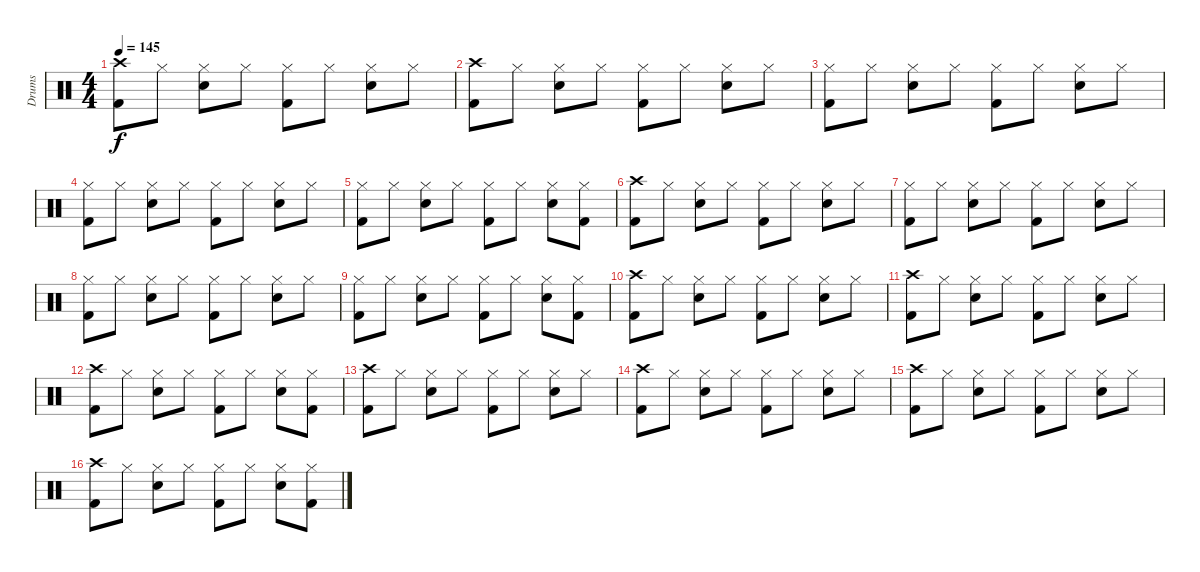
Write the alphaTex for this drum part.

\track ("Drums" "Drums") {instrument percussion}
\staff {score}
\articulation defaults
\ts (4 4)
\tempo 145
\clef neutral
\ks c
("Crash high (hit)" "Kick (hit) 2").8{dy f} "Hi-Hat (closed)".8 ("Hi-Hat (closed)" "Snare (hit) 2").8 "Hi-Hat (closed)".8 ("Hi-Hat (closed)" "Kick (hit) 2").8 "Hi-Hat (closed)".8 ("Hi-Hat (closed)" "Snare (hit) 2").8 "Hi-Hat (closed)".8 |
("Crash high (hit)" "Kick (hit) 2").8 "Hi-Hat (closed)".8 ("Hi-Hat (closed)" "Snare (hit) 2").8 "Hi-Hat (closed)".8 ("Hi-Hat (closed)" "Kick (hit) 2").8 "Hi-Hat (closed)".8 ("Hi-Hat (closed)" "Snare (hit) 2").8 "Hi-Hat (closed)".8 |
("Hi-Hat (closed)" "Kick (hit) 2").8 "Hi-Hat (closed)".8 ("Hi-Hat (closed)" "Snare (hit) 2").8 "Hi-Hat (closed)".8 ("Hi-Hat (closed)" "Kick (hit) 2").8 "Hi-Hat (closed)".8 ("Hi-Hat (closed)" "Snare (hit) 2").8 "Hi-Hat (closed)".8 |
("Hi-Hat (closed)" "Kick (hit) 2").8 "Hi-Hat (closed)".8 ("Hi-Hat (closed)" "Snare (hit) 2").8 "Hi-Hat (closed)".8 ("Hi-Hat (closed)" "Kick (hit) 2").8 "Hi-Hat (closed)".8 ("Hi-Hat (closed)" "Snare (hit) 2").8 "Hi-Hat (closed)".8 |
("Hi-Hat (closed)" "Kick (hit) 2").8 "Hi-Hat (closed)".8 ("Hi-Hat (closed)" "Snare (hit) 2").8 "Hi-Hat (closed)".8 ("Hi-Hat (closed)" "Kick (hit) 2").8 "Hi-Hat (closed)".8 ("Hi-Hat (closed)" "Snare (hit) 2").8 ("Hi-Hat (closed)" "Kick (hit) 2").8 |
("Crash high (hit)" "Kick (hit) 2").8 "Hi-Hat (closed)".8 ("Hi-Hat (closed)" "Snare (hit) 2").8 "Hi-Hat (closed)".8 ("Hi-Hat (closed)" "Kick (hit) 2").8 "Hi-Hat (closed)".8 ("Hi-Hat (closed)" "Snare (hit) 2").8 "Hi-Hat (closed)".8 |
("Hi-Hat (closed)" "Kick (hit) 2").8 "Hi-Hat (closed)".8 ("Hi-Hat (closed)" "Snare (hit) 2").8 "Hi-Hat (closed)".8 ("Hi-Hat (closed)" "Kick (hit) 2").8 "Hi-Hat (closed)".8 ("Hi-Hat (closed)" "Snare (hit) 2").8 "Hi-Hat (closed)".8 |
("Hi-Hat (closed)" "Kick (hit) 2").8 "Hi-Hat (closed)".8 ("Hi-Hat (closed)" "Snare (hit) 2").8 "Hi-Hat (closed)".8 ("Hi-Hat (closed)" "Kick (hit) 2").8 "Hi-Hat (closed)".8 ("Hi-Hat (closed)" "Snare (hit) 2").8 "Hi-Hat (closed)".8 |
("Hi-Hat (closed)" "Kick (hit) 2").8 "Hi-Hat (closed)".8 ("Hi-Hat (closed)" "Snare (hit) 2").8 "Hi-Hat (closed)".8 ("Hi-Hat (closed)" "Kick (hit) 2").8 "Hi-Hat (closed)".8 ("Hi-Hat (closed)" "Snare (hit) 2").8 ("Hi-Hat (closed)" "Kick (hit) 2").8 |
("Crash high (hit)" "Kick (hit) 2").8 "Hi-Hat (closed)".8 ("Hi-Hat (closed)" "Snare (hit) 2").8 "Hi-Hat (closed)".8 ("Hi-Hat (closed)" "Kick (hit) 2").8 "Hi-Hat (closed)".8 ("Hi-Hat (closed)" "Snare (hit) 2").8 "Hi-Hat (closed)".8 |
("Crash high (hit)" "Kick (hit) 2").8 "Hi-Hat (closed)".8 ("Hi-Hat (closed)" "Snare (hit) 2").8 "Hi-Hat (closed)".8 ("Hi-Hat (closed)" "Kick (hit) 2").8 "Hi-Hat (closed)".8 ("Hi-Hat (closed)" "Snare (hit) 2").8 "Hi-Hat (closed)".8 |
("Crash high (hit)" "Kick (hit) 2").8 "Hi-Hat (closed)".8 ("Hi-Hat (closed)" "Snare (hit) 2").8 "Hi-Hat (closed)".8 ("Hi-Hat (closed)" "Kick (hit) 2").8 "Hi-Hat (closed)".8 ("Hi-Hat (closed)" "Snare (hit) 2").8 ("Hi-Hat (closed)" "Kick (hit) 2").8 |
("Crash high (hit)" "Kick (hit) 2").8 "Hi-Hat (closed)".8 ("Hi-Hat (closed)" "Snare (hit) 2").8 "Hi-Hat (closed)".8 ("Hi-Hat (closed)" "Kick (hit) 2").8 "Hi-Hat (closed)".8 ("Hi-Hat (closed)" "Snare (hit) 2").8 "Hi-Hat (closed)".8 |
("Crash high (hit)" "Kick (hit) 2").8 "Hi-Hat (closed)".8 ("Hi-Hat (closed)" "Snare (hit) 2").8 "Hi-Hat (closed)".8 ("Hi-Hat (closed)" "Kick (hit) 2").8 "Hi-Hat (closed)".8 ("Hi-Hat (closed)" "Snare (hit) 2").8 "Hi-Hat (closed)".8 |
("Crash high (hit)" "Kick (hit) 2").8 "Hi-Hat (closed)".8 ("Hi-Hat (closed)" "Snare (hit) 2").8 "Hi-Hat (closed)".8 ("Hi-Hat (closed)" "Kick (hit) 2").8 "Hi-Hat (closed)".8 ("Hi-Hat (closed)" "Snare (hit) 2").8 "Hi-Hat (closed)".8 |
("Crash high (hit)" "Kick (hit) 2").8 "Hi-Hat (closed)".8 ("Hi-Hat (closed)" "Snare (hit) 2").8 "Hi-Hat (closed)".8 ("Hi-Hat (closed)" "Kick (hit) 2").8 "Hi-Hat (closed)".8 ("Hi-Hat (closed)" "Snare (hit) 2").8 ("Hi-Hat (closed)" "Kick (hit) 2").8
